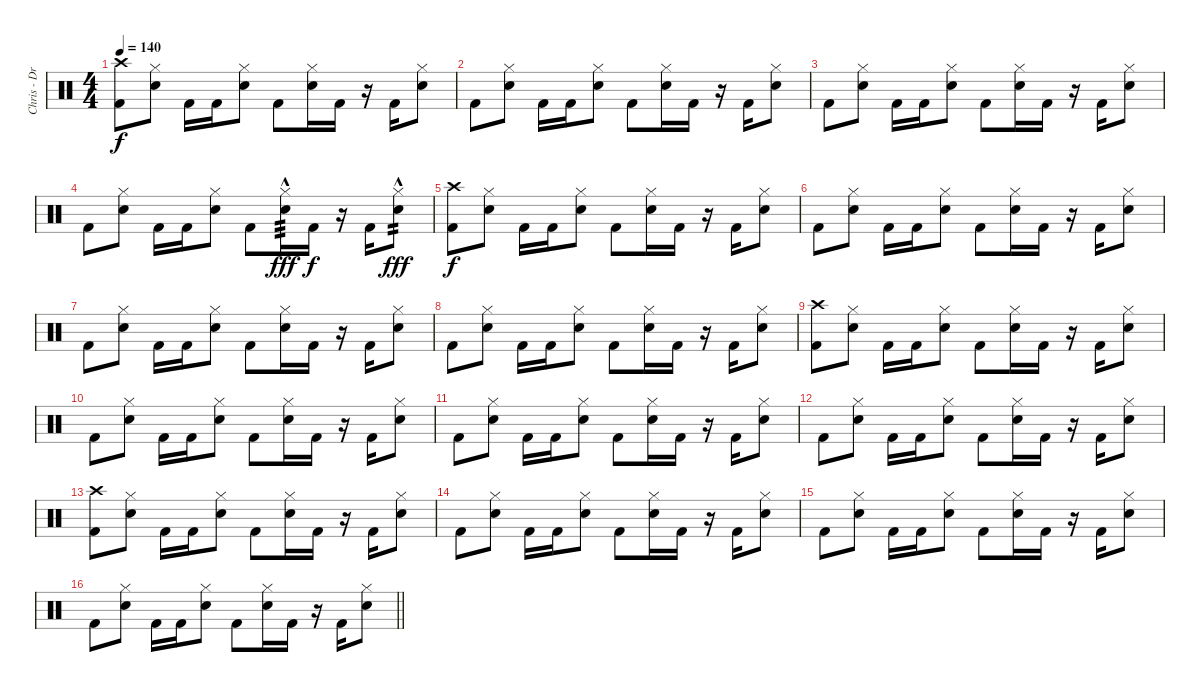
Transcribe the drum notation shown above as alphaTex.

\track ("Chris - Drums" "Chris - Dr") {instrument percussion}
\staff {score}
\articulation defaults
\ts (4 4)
\tempo 140
\clef neutral
\ks c
("Crash high (hit)" "Kick (hit) 2").8{dy f} ("Hi-Hat (closed)" "Electric Snare (hit)").8 "Kick (hit) 2".16 "Kick (hit) 2".16 ("Hi-Hat (closed)" "Electric Snare (hit)").8 "Kick (hit) 2".8 ("Hi-Hat (closed)" "Electric Snare (hit)").16 "Kick (hit) 2".16 r.16 "Kick (hit) 2".16 ("Hi-Hat (closed)" "Electric Snare (hit)").8 |
"Kick (hit) 2".8 ("Hi-Hat (closed)" "Electric Snare (hit)").8 "Kick (hit) 2".16 "Kick (hit) 2".16 ("Hi-Hat (closed)" "Electric Snare (hit)").8 "Kick (hit) 2".8 ("Hi-Hat (closed)" "Electric Snare (hit)").16 "Kick (hit) 2".16 r.16 "Kick (hit) 2".16 ("Hi-Hat (closed)" "Electric Snare (hit)").8 |
"Kick (hit) 2".8 ("Hi-Hat (closed)" "Electric Snare (hit)").8 "Kick (hit) 2".16 "Kick (hit) 2".16 ("Hi-Hat (closed)" "Electric Snare (hit)").8 "Kick (hit) 2".8 ("Hi-Hat (closed)" "Electric Snare (hit)").16 "Kick (hit) 2".16 r.16 "Kick (hit) 2".16 ("Hi-Hat (closed)" "Electric Snare (hit)").8 |
"Kick (hit) 2".8 ("Hi-Hat (closed)" "Electric Snare (hit)").8 "Kick (hit) 2".16 "Kick (hit) 2".16 ("Hi-Hat (closed)" "Electric Snare (hit)").8 "Kick (hit) 2".8 ("Hi-Hat (closed)" "Electric Snare (hit)"{hac}).16{tp 3 dy fff} "Kick (hit) 2".16{dy f} r.16 "Kick (hit) 2".16 ("Hi-Hat (closed)" "Electric Snare (hit)"{hac}).8{tp 2 dy fff} |
("Crash high (hit)" "Kick (hit) 2").8{dy f} ("Hi-Hat (closed)" "Electric Snare (hit)").8 "Kick (hit) 2".16 "Kick (hit) 2".16 ("Hi-Hat (closed)" "Electric Snare (hit)").8 "Kick (hit) 2".8 ("Hi-Hat (closed)" "Electric Snare (hit)").16 "Kick (hit) 2".16 r.16 "Kick (hit) 2".16 ("Hi-Hat (closed)" "Electric Snare (hit)").8 |
"Kick (hit) 2".8 ("Hi-Hat (closed)" "Electric Snare (hit)").8 "Kick (hit) 2".16 "Kick (hit) 2".16 ("Hi-Hat (closed)" "Electric Snare (hit)").8 "Kick (hit) 2".8 ("Hi-Hat (closed)" "Electric Snare (hit)").16 "Kick (hit) 2".16 r.16 "Kick (hit) 2".16 ("Hi-Hat (closed)" "Electric Snare (hit)").8 |
"Kick (hit) 2".8 ("Hi-Hat (closed)" "Electric Snare (hit)").8 "Kick (hit) 2".16 "Kick (hit) 2".16 ("Hi-Hat (closed)" "Electric Snare (hit)").8 "Kick (hit) 2".8 ("Hi-Hat (closed)" "Electric Snare (hit)").16 "Kick (hit) 2".16 r.16 "Kick (hit) 2".16 ("Hi-Hat (closed)" "Electric Snare (hit)").8 |
"Kick (hit) 2".8 ("Hi-Hat (closed)" "Electric Snare (hit)").8 "Kick (hit) 2".16 "Kick (hit) 2".16 ("Hi-Hat (closed)" "Electric Snare (hit)").8 "Kick (hit) 2".8 ("Hi-Hat (closed)" "Electric Snare (hit)").16 "Kick (hit) 2".16 r.16 "Kick (hit) 2".16 ("Hi-Hat (closed)" "Electric Snare (hit)").8 |
("Crash high (hit)" "Kick (hit) 2").8 ("Hi-Hat (closed)" "Electric Snare (hit)").8 "Kick (hit) 2".16 "Kick (hit) 2".16 ("Hi-Hat (closed)" "Electric Snare (hit)").8 "Kick (hit) 2".8 ("Hi-Hat (closed)" "Electric Snare (hit)").16 "Kick (hit) 2".16 r.16 "Kick (hit) 2".16 ("Hi-Hat (closed)" "Electric Snare (hit)").8 |
"Kick (hit) 2".8 ("Hi-Hat (closed)" "Electric Snare (hit)").8 "Kick (hit) 2".16 "Kick (hit) 2".16 ("Hi-Hat (closed)" "Electric Snare (hit)").8 "Kick (hit) 2".8 ("Hi-Hat (closed)" "Electric Snare (hit)").16 "Kick (hit) 2".16 r.16 "Kick (hit) 2".16 ("Hi-Hat (closed)" "Electric Snare (hit)").8 |
"Kick (hit) 2".8 ("Hi-Hat (closed)" "Electric Snare (hit)").8 "Kick (hit) 2".16 "Kick (hit) 2".16 ("Hi-Hat (closed)" "Electric Snare (hit)").8 "Kick (hit) 2".8 ("Hi-Hat (closed)" "Electric Snare (hit)").16 "Kick (hit) 2".16 r.16 "Kick (hit) 2".16 ("Hi-Hat (closed)" "Electric Snare (hit)").8 |
"Kick (hit) 2".8 ("Hi-Hat (closed)" "Electric Snare (hit)").8 "Kick (hit) 2".16 "Kick (hit) 2".16 ("Hi-Hat (closed)" "Electric Snare (hit)").8 "Kick (hit) 2".8 ("Hi-Hat (closed)" "Electric Snare (hit)").16 "Kick (hit) 2".16 r.16 "Kick (hit) 2".16 ("Hi-Hat (closed)" "Electric Snare (hit)").8 |
("Crash high (hit)" "Kick (hit) 2").8 ("Hi-Hat (closed)" "Electric Snare (hit)").8 "Kick (hit) 2".16 "Kick (hit) 2".16 ("Hi-Hat (closed)" "Electric Snare (hit)").8 "Kick (hit) 2".8 ("Hi-Hat (closed)" "Electric Snare (hit)").16 "Kick (hit) 2".16 r.16 "Kick (hit) 2".16 ("Hi-Hat (closed)" "Electric Snare (hit)").8 |
"Kick (hit) 2".8 ("Hi-Hat (closed)" "Electric Snare (hit)").8 "Kick (hit) 2".16 "Kick (hit) 2".16 ("Hi-Hat (closed)" "Electric Snare (hit)").8 "Kick (hit) 2".8 ("Hi-Hat (closed)" "Electric Snare (hit)").16 "Kick (hit) 2".16 r.16 "Kick (hit) 2".16 ("Hi-Hat (closed)" "Electric Snare (hit)").8 |
"Kick (hit) 2".8 ("Hi-Hat (closed)" "Electric Snare (hit)").8 "Kick (hit) 2".16 "Kick (hit) 2".16 ("Hi-Hat (closed)" "Electric Snare (hit)").8 "Kick (hit) 2".8 ("Hi-Hat (closed)" "Electric Snare (hit)").16 "Kick (hit) 2".16 r.16 "Kick (hit) 2".16 ("Hi-Hat (closed)" "Electric Snare (hit)").8 |
\barLineRight lightlight "Kick (hit) 2".8
("Hi-Hat (closed)" "Electric Snare (hit)").8 "Kick (hit) 2".16 "Kick (hit) 2".16 ("Hi-Hat (closed)" "Electric Snare (hit)").8 "Kick (hit) 2".8 ("Hi-Hat (closed)" "Electric Snare (hit)").16 "Kick (hit) 2".16 r.16 "Kick (hit) 2".16 ("Hi-Hat (closed)" "Electric Snare (hit)").8
